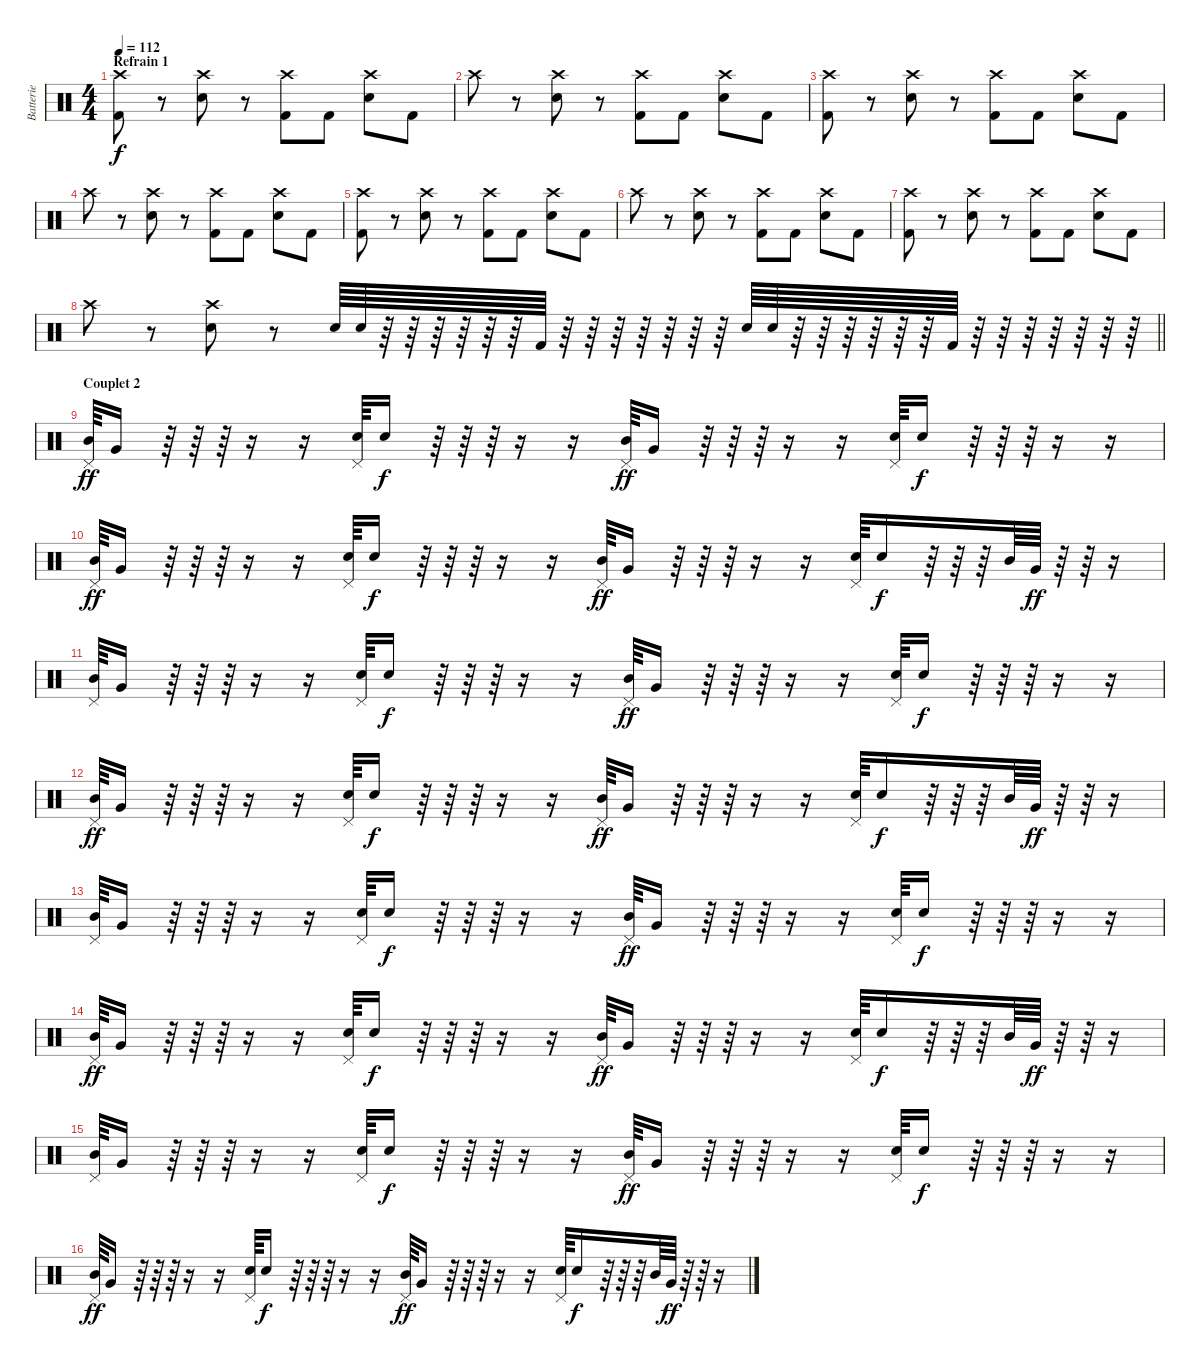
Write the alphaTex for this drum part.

\track ("Batterie" "Batterie") {instrument percussion}
\staff {score}
\articulation defaults
\ts (4 4)
\section ("" "Refrain 1")
\tempo 112
\clef neutral
\ks c
("Kick (hit) 2" "Crash high (hit)").8{dy f} r.8 ("Electric Snare (hit)" "Crash high (hit)").8 r.8 ("Kick (hit) 2" "Crash high (hit)").8 "Kick (hit) 2".8 ("Electric Snare (hit)" "Crash high (hit)").8 "Kick (hit) 2".8 |
"Crash high (hit)".8 r.8 ("Electric Snare (hit)" "Crash high (hit)").8 r.8 ("Kick (hit) 2" "Crash high (hit)").8 "Kick (hit) 2".8 ("Electric Snare (hit)" "Crash high (hit)").8 "Kick (hit) 2".8 |
("Kick (hit) 2" "Crash high (hit)").8 r.8 ("Electric Snare (hit)" "Crash high (hit)").8 r.8 ("Kick (hit) 2" "Crash high (hit)").8 "Kick (hit) 2".8 ("Electric Snare (hit)" "Crash high (hit)").8 "Kick (hit) 2".8 |
"Crash high (hit)".8 r.8 ("Electric Snare (hit)" "Crash high (hit)").8 r.8 ("Kick (hit) 2" "Crash high (hit)").8 "Kick (hit) 2".8 ("Electric Snare (hit)" "Crash high (hit)").8 "Kick (hit) 2".8 |
("Kick (hit) 2" "Crash high (hit)").8 r.8 ("Electric Snare (hit)" "Crash high (hit)").8 r.8 ("Kick (hit) 2" "Crash high (hit)").8 "Kick (hit) 2".8 ("Electric Snare (hit)" "Crash high (hit)").8 "Kick (hit) 2".8 |
"Crash high (hit)".8 r.8 ("Electric Snare (hit)" "Crash high (hit)").8 r.8 ("Kick (hit) 2" "Crash high (hit)").8 "Kick (hit) 2".8 ("Electric Snare (hit)" "Crash high (hit)").8 "Kick (hit) 2".8 |
("Kick (hit) 2" "Crash high (hit)").8 r.8 ("Electric Snare (hit)" "Crash high (hit)").8 r.8 ("Kick (hit) 2" "Crash high (hit)").8 "Kick (hit) 2".8 ("Electric Snare (hit)" "Crash high (hit)").8 "Kick (hit) 2".8 |
\barLineRight lightlight "Crash high (hit)".8
r.8 ("Electric Snare (hit)" "Crash high (hit)").8 r.8 "Electric Snare (hit)".64 "Electric Snare (hit)".64 r.64 r.64 r.64 r.64 r.64 r.64 "Kick (hit) 2".64 r.64 r.64 r.64 r.64 r.64 r.64 r.64 "Electric Snare (hit)".64 "Electric Snare (hit)".64 r.64 r.64 r.64 r.64 r.64 r.64 "Kick (hit) 2".64 r.64 r.64 r.64 r.64 r.64 r.64 r.64 |
\section ("" "Couplet 2")
("Mid Tom (hit)" "Pedal Hi-Hat (hit)").64{dy ff} "Very Low Tom (hit)".16 r.64 r.64 r.64 r.16 r.16 ("Electric Snare (hit)" "Pedal Hi-Hat (hit)").64 "Electric Snare (hit)".16{dy f} r.64 r.64 r.64 r.16 r.16 ("Mid Tom (hit)" "Pedal Hi-Hat (hit)").64{dy ff} "Very Low Tom (hit)".16 r.64 r.64 r.64 r.16 r.16 ("Electric Snare (hit)" "Pedal Hi-Hat (hit)").64 "Electric Snare (hit)".16{dy f} r.64 r.64 r.64 r.16 r.16 |
("Mid Tom (hit)" "Pedal Hi-Hat (hit)").64{dy ff} "Very Low Tom (hit)".16 r.64 r.64 r.64 r.16 r.16 ("Electric Snare (hit)" "Pedal Hi-Hat (hit)").64 "Electric Snare (hit)".16{dy f} r.64 r.64 r.64 r.16 r.16 ("Mid Tom (hit)" "Pedal Hi-Hat (hit)").64{dy ff} "Very Low Tom (hit)".16 r.64 r.64 r.64 r.16 r.16 ("Electric Snare (hit)" "Pedal Hi-Hat (hit)").64 "Electric Snare (hit)".16{dy f} r.64 r.64 r.64 "Mid Tom (hit)".64 "Very Low Tom (hit)".64{dy ff} r.64 r.64 r.16 |
("Mid Tom (hit)" "Pedal Hi-Hat (hit)").64 "Very Low Tom (hit)".16 r.64 r.64 r.64 r.16 r.16 ("Electric Snare (hit)" "Pedal Hi-Hat (hit)").64 "Electric Snare (hit)".16{dy f} r.64 r.64 r.64 r.16 r.16 ("Mid Tom (hit)" "Pedal Hi-Hat (hit)").64{dy ff} "Very Low Tom (hit)".16 r.64 r.64 r.64 r.16 r.16 ("Electric Snare (hit)" "Pedal Hi-Hat (hit)").64 "Electric Snare (hit)".16{dy f} r.64 r.64 r.64 r.16 r.16 |
("Mid Tom (hit)" "Pedal Hi-Hat (hit)").64{dy ff} "Very Low Tom (hit)".16 r.64 r.64 r.64 r.16 r.16 ("Electric Snare (hit)" "Pedal Hi-Hat (hit)").64 "Electric Snare (hit)".16{dy f} r.64 r.64 r.64 r.16 r.16 ("Mid Tom (hit)" "Pedal Hi-Hat (hit)").64{dy ff} "Very Low Tom (hit)".16 r.64 r.64 r.64 r.16 r.16 ("Electric Snare (hit)" "Pedal Hi-Hat (hit)").64 "Electric Snare (hit)".16{dy f} r.64 r.64 r.64 "Mid Tom (hit)".64 "Very Low Tom (hit)".64{dy ff} r.64 r.64 r.16 |
("Mid Tom (hit)" "Pedal Hi-Hat (hit)").64 "Very Low Tom (hit)".16 r.64 r.64 r.64 r.16 r.16 ("Electric Snare (hit)" "Pedal Hi-Hat (hit)").64 "Electric Snare (hit)".16{dy f} r.64 r.64 r.64 r.16 r.16 ("Mid Tom (hit)" "Pedal Hi-Hat (hit)").64{dy ff} "Very Low Tom (hit)".16 r.64 r.64 r.64 r.16 r.16 ("Electric Snare (hit)" "Pedal Hi-Hat (hit)").64 "Electric Snare (hit)".16{dy f} r.64 r.64 r.64 r.16 r.16 |
("Mid Tom (hit)" "Pedal Hi-Hat (hit)").64{dy ff} "Very Low Tom (hit)".16 r.64 r.64 r.64 r.16 r.16 ("Electric Snare (hit)" "Pedal Hi-Hat (hit)").64 "Electric Snare (hit)".16{dy f} r.64 r.64 r.64 r.16 r.16 ("Mid Tom (hit)" "Pedal Hi-Hat (hit)").64{dy ff} "Very Low Tom (hit)".16 r.64 r.64 r.64 r.16 r.16 ("Electric Snare (hit)" "Pedal Hi-Hat (hit)").64 "Electric Snare (hit)".16{dy f} r.64 r.64 r.64 "Mid Tom (hit)".64 "Very Low Tom (hit)".64{dy ff} r.64 r.64 r.16 |
("Mid Tom (hit)" "Pedal Hi-Hat (hit)").64 "Very Low Tom (hit)".16 r.64 r.64 r.64 r.16 r.16 ("Electric Snare (hit)" "Pedal Hi-Hat (hit)").64 "Electric Snare (hit)".16{dy f} r.64 r.64 r.64 r.16 r.16 ("Mid Tom (hit)" "Pedal Hi-Hat (hit)").64{dy ff} "Very Low Tom (hit)".16 r.64 r.64 r.64 r.16 r.16 ("Electric Snare (hit)" "Pedal Hi-Hat (hit)").64 "Electric Snare (hit)".16{dy f} r.64 r.64 r.64 r.16 r.16 |
("Mid Tom (hit)" "Pedal Hi-Hat (hit)").64{dy ff} "Very Low Tom (hit)".16 r.64 r.64 r.64 r.16 r.16 ("Electric Snare (hit)" "Pedal Hi-Hat (hit)").64 "Electric Snare (hit)".16{dy f} r.64 r.64 r.64 r.16 r.16 ("Mid Tom (hit)" "Pedal Hi-Hat (hit)").64{dy ff} "Very Low Tom (hit)".16 r.64 r.64 r.64 r.16 r.16 ("Electric Snare (hit)" "Pedal Hi-Hat (hit)").64 "Electric Snare (hit)".16{dy f} r.64 r.64 r.64 "Mid Tom (hit)".64 "Very Low Tom (hit)".64{dy ff} r.64 r.64 r.16
